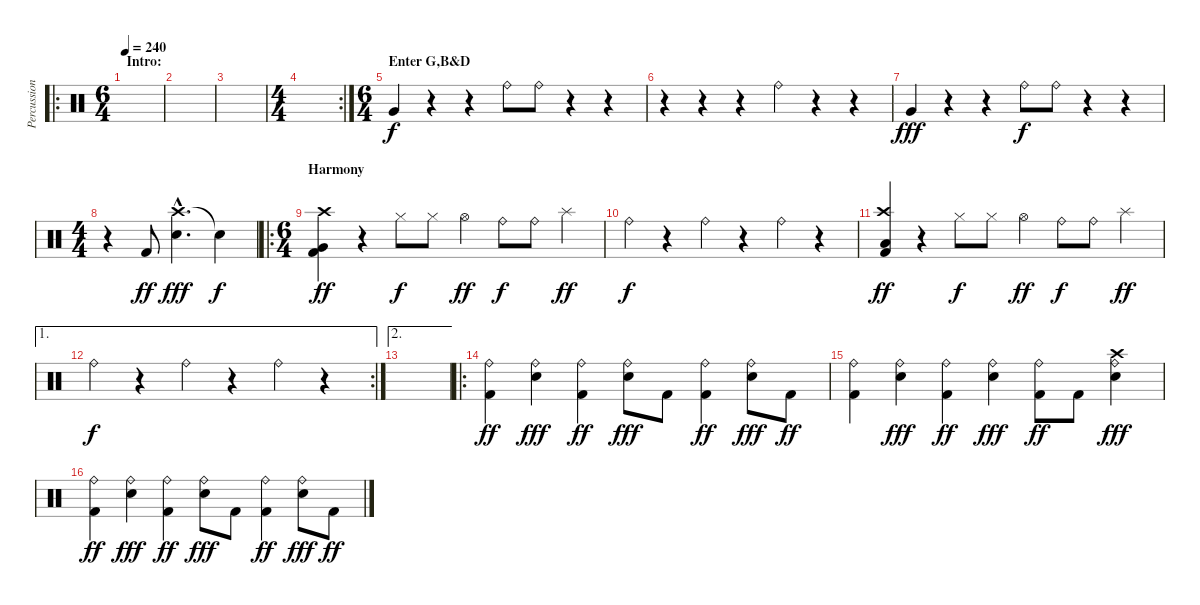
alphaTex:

\track ("Percussion" "Percussion") {instrument percussion}
\staff {score}
\articulation defaults
\ro
\ts (6 4)
\section ("" "Intro:")
\tempo 240
\clef neutral
\ks c
|
|
|
\rc 2
\ts (4 4)
|
\ts (6 4)
\section ("" "Enter G,B&D")
"Very Low Tom (hit)".4 r.4 r.4 "Ride (bell)".8{dy f} "Ride (bell)".8 r.4 r.4 |
r.4 r.4 r.4 "Ride (bell)".4 r.4 r.4 |
"Very Low Tom (hit)".4{dy fff} r.4 r.4 "Ride (bell)".8{dy f} "Ride (bell)".8 r.4 r.4 |
\ts (4 4)
r.4 "Kick (hit) 2".8{dy ff} ("Crash high (hit)"{hac} "Snare (hit) 2"{hac}).4{d dy fff} "Snare (hit)"{t}.4{dy f} |
\ro
\ts (6 4)
\section ("" "Harmony")
("Very Low Tom (hit)" "Crash high (hit)" "Kick (hit) 2").4{dy ff} r.4 "Hi-Hat (closed)".8{dy f} "Hi-Hat (closed)".8 "Hi-Hat (open)".4{dy ff} "Ride (bell)".8{dy f} "Ride (bell)".8 "Splash (hit)".4{dy ff} |
"Ride (bell)".4{dy f} r.4 "Ride (bell)".4 r.4 "Ride (bell)".4 r.4 |
("Low Floor Tom (hit)" "Crash high (hit)" "Kick (hit) 2").4{dy ff} r.4 "Hi-Hat (closed)".8{dy f} "Hi-Hat (closed)".8 "Hi-Hat (open)".4{dy ff} "Ride (bell)".8{dy f} "Ride (bell)".8 "Splash (hit)".4{dy ff} |
\ae 1
\rc 2 "Ride (bell)".4{dy f}
r.4 "Ride (bell)".4 r.4 "Ride (bell)".4 r.4 |
\ae 2
|
\ro
("Ride (bell)" "Kick (hit) 2").4{dy ff} ("Ride (bell)" "Snare (hit) 2").4{dy fff} ("Ride (bell)" "Kick (hit) 2").4{dy ff} ("Ride (bell)" "Snare (hit) 2").8{dy fff} "Kick (hit) 2".8 ("Ride (bell)" "Kick (hit) 2").4{dy ff} ("Ride (bell)" "Snare (hit) 2").8{dy fff} "Kick (hit) 2".8{dy ff} |
("Ride (bell)" "Kick (hit) 2").4 ("Ride (bell)" "Snare (hit) 2").4{dy fff} ("Ride (bell)" "Kick (hit) 2").4{dy ff} ("Ride (bell)" "Snare (hit) 2").4{dy fff} ("Ride (bell)" "Kick (hit) 2").8{dy ff} "Kick (hit) 2".8 ("Ride (bell)" "Crash high (hit)" "Snare (hit) 2").4{dy fff} |
("Ride (bell)" "Kick (hit) 2").4{dy ff} ("Ride (bell)" "Snare (hit) 2").4{dy fff} ("Ride (bell)" "Kick (hit) 2").4{dy ff} ("Ride (bell)" "Snare (hit) 2").8{dy fff} "Kick (hit) 2".8 ("Ride (bell)" "Kick (hit) 2").4{dy ff} ("Ride (bell)" "Snare (hit) 2").8{dy fff} "Kick (hit) 2".8{dy ff}
